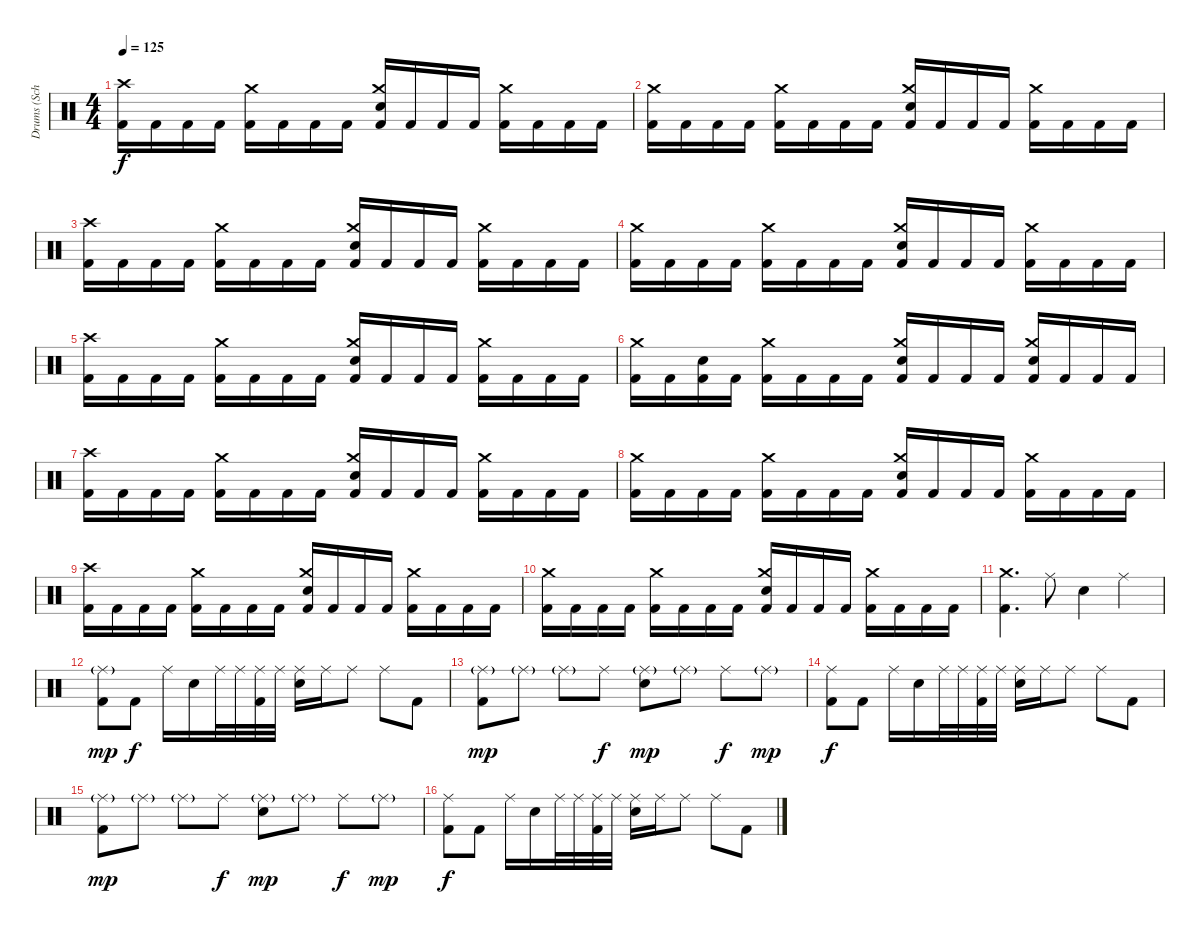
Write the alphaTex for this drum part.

\track ("Drums (Schill)" "Drums (Sch") {instrument percussion}
\staff {score}
\articulation defaults
\ts (4 4)
\tempo 125
\clef neutral
\ks c
("Crash high (hit)" "Kick (hit) 2").16{dy f} "Kick (hit) 2".16 "Kick (hit) 2".16 "Kick (hit) 2".16 ("Crash medium (hit)" "Kick (hit) 2").16 "Kick (hit) 2".16 "Kick (hit) 2".16 "Kick (hit) 2".16 ("Crash medium (hit)" "Electric Snare (hit)" "Kick (hit) 2").16 "Kick (hit) 2".16 "Kick (hit) 2".16 "Kick (hit) 2".16 ("Crash medium (hit)" "Kick (hit) 2").16 "Kick (hit) 2".16 "Kick (hit) 2".16 "Kick (hit) 2".16 |
("Crash medium (hit)" "Kick (hit) 2").16 "Kick (hit) 2".16 "Kick (hit) 2".16 "Kick (hit) 2".16 ("Crash medium (hit)" "Kick (hit) 2").16 "Kick (hit) 2".16 "Kick (hit) 2".16 "Kick (hit) 2".16 ("Crash medium (hit)" "Electric Snare (hit)" "Kick (hit) 2").16 "Kick (hit) 2".16 "Kick (hit) 2".16 "Kick (hit) 2".16 ("Crash medium (hit)" "Kick (hit) 2").16 "Kick (hit) 2".16 "Kick (hit) 2".16 "Kick (hit) 2".16 |
("Crash high (hit)" "Kick (hit) 2").16 "Kick (hit) 2".16 "Kick (hit) 2".16 "Kick (hit) 2".16 ("Crash medium (hit)" "Kick (hit) 2").16 "Kick (hit) 2".16 "Kick (hit) 2".16 "Kick (hit) 2".16 ("Crash medium (hit)" "Electric Snare (hit)" "Kick (hit) 2").16 "Kick (hit) 2".16 "Kick (hit) 2".16 "Kick (hit) 2".16 ("Crash medium (hit)" "Kick (hit) 2").16 "Kick (hit) 2".16 "Kick (hit) 2".16 "Kick (hit) 2".16 |
("Crash medium (hit)" "Kick (hit) 2").16 "Kick (hit) 2".16 "Kick (hit) 2".16 "Kick (hit) 2".16 ("Crash medium (hit)" "Kick (hit) 2").16 "Kick (hit) 2".16 "Kick (hit) 2".16 "Kick (hit) 2".16 ("Crash medium (hit)" "Electric Snare (hit)" "Kick (hit) 2").16 "Kick (hit) 2".16 "Kick (hit) 2".16 "Kick (hit) 2".16 ("Crash medium (hit)" "Kick (hit) 2").16 "Kick (hit) 2".16 "Kick (hit) 2".16 "Kick (hit) 2".16 |
("Crash high (hit)" "Kick (hit) 2").16 "Kick (hit) 2".16 "Kick (hit) 2".16 "Kick (hit) 2".16 ("Crash medium (hit)" "Kick (hit) 2").16 "Kick (hit) 2".16 "Kick (hit) 2".16 "Kick (hit) 2".16 ("Crash medium (hit)" "Electric Snare (hit)" "Kick (hit) 2").16 "Kick (hit) 2".16 "Kick (hit) 2".16 "Kick (hit) 2".16 ("Crash medium (hit)" "Kick (hit) 2").16 "Kick (hit) 2".16 "Kick (hit) 2".16 "Kick (hit) 2".16 |
("Crash medium (hit)" "Kick (hit) 2").16 "Kick (hit) 2".16 ("Electric Snare (hit)" "Kick (hit) 2").16 "Kick (hit) 2".16 ("Crash medium (hit)" "Kick (hit) 2").16 "Kick (hit) 2".16 "Kick (hit) 2".16 "Kick (hit) 2".16 ("Crash medium (hit)" "Electric Snare (hit)" "Kick (hit) 2").16 "Kick (hit) 2".16 "Kick (hit) 2".16 "Kick (hit) 2".16 ("Crash medium (hit)" "Electric Snare (hit)" "Kick (hit) 2").16 "Kick (hit) 2".16 "Kick (hit) 2".16 "Kick (hit) 2".16 |
("Crash high (hit)" "Kick (hit) 2").16 "Kick (hit) 2".16 "Kick (hit) 2".16 "Kick (hit) 2".16 ("Crash medium (hit)" "Kick (hit) 2").16 "Kick (hit) 2".16 "Kick (hit) 2".16 "Kick (hit) 2".16 ("Crash medium (hit)" "Electric Snare (hit)" "Kick (hit) 2").16 "Kick (hit) 2".16 "Kick (hit) 2".16 "Kick (hit) 2".16 ("Crash medium (hit)" "Kick (hit) 2").16 "Kick (hit) 2".16 "Kick (hit) 2".16 "Kick (hit) 2".16 |
("Crash medium (hit)" "Kick (hit) 2").16 "Kick (hit) 2".16 "Kick (hit) 2".16 "Kick (hit) 2".16 ("Crash medium (hit)" "Kick (hit) 2").16 "Kick (hit) 2".16 "Kick (hit) 2".16 "Kick (hit) 2".16 ("Crash medium (hit)" "Electric Snare (hit)" "Kick (hit) 2").16 "Kick (hit) 2".16 "Kick (hit) 2".16 "Kick (hit) 2".16 ("Crash medium (hit)" "Kick (hit) 2").16 "Kick (hit) 2".16 "Kick (hit) 2".16 "Kick (hit) 2".16 |
("Crash high (hit)" "Kick (hit) 2").16 "Kick (hit) 2".16 "Kick (hit) 2".16 "Kick (hit) 2".16 ("Crash medium (hit)" "Kick (hit) 2").16 "Kick (hit) 2".16 "Kick (hit) 2".16 "Kick (hit) 2".16 ("Crash medium (hit)" "Electric Snare (hit)" "Kick (hit) 2").16 "Kick (hit) 2".16 "Kick (hit) 2".16 "Kick (hit) 2".16 ("Crash medium (hit)" "Kick (hit) 2").16 "Kick (hit) 2".16 "Kick (hit) 2".16 "Kick (hit) 2".16 |
("Crash medium (hit)" "Kick (hit) 2").16 "Kick (hit) 2".16 "Kick (hit) 2".16 "Kick (hit) 2".16 ("Crash medium (hit)" "Kick (hit) 2").16 "Kick (hit) 2".16 "Kick (hit) 2".16 "Kick (hit) 2".16 ("Crash medium (hit)" "Electric Snare (hit)" "Kick (hit) 2").16 "Kick (hit) 2".16 "Kick (hit) 2".16 "Kick (hit) 2".16 ("Crash medium (hit)" "Kick (hit) 2").16 "Kick (hit) 2".16 "Kick (hit) 2".16 "Kick (hit) 2".16 |
("Crash medium (hit)" "Kick (hit) 2").4{d} "Ride (middle)".8 "Electric Snare (hit)".4 "Ride (middle)".4 |
("Ride (middle)"{g} "Kick (hit) 2").8{dy mp} "Kick (hit) 2".8{dy f} "Ride (middle)".16 "Electric Snare (hit)".16 "Ride (middle)".32 "Ride (middle)".32 ("Ride (middle)" "Kick (hit) 2").32 "Ride (middle)".32 ("Ride (middle)" "Electric Snare (hit)").16 "Ride (middle)".16 "Ride (middle)".8 "Ride (middle)".8 "Kick (hit) 2".8 |
("Ride (middle)"{g} "Kick (hit) 2").8{dy mp} "Ride (middle)"{g}.8 "Ride (middle)"{g}.8 "Ride (middle)".8{dy f} ("Ride (middle)"{g} "Electric Snare (hit)").8{dy mp} "Ride (middle)"{g}.8 "Ride (middle)".8{dy f} "Ride (middle)"{g}.8{dy mp} |
("Ride (middle)" "Kick (hit) 2").8{dy f} "Kick (hit) 2".8 "Ride (middle)".16 "Electric Snare (hit)".16 "Ride (middle)".32 "Ride (middle)".32 ("Ride (middle)" "Kick (hit) 2").32 "Ride (middle)".32 ("Ride (middle)" "Electric Snare (hit)").16 "Ride (middle)".16 "Ride (middle)".8 "Ride (middle)".8 "Kick (hit) 2".8 |
("Ride (middle)"{g} "Kick (hit) 2").8{dy mp} "Ride (middle)"{g}.8 "Ride (middle)"{g}.8 "Ride (middle)".8{dy f} ("Ride (middle)"{g} "Electric Snare (hit)").8{dy mp} "Ride (middle)"{g}.8 "Ride (middle)".8{dy f} "Ride (middle)"{g}.8{dy mp} |
("Ride (middle)" "Kick (hit) 2").8{dy f} "Kick (hit) 2".8 "Ride (middle)".16 "Electric Snare (hit)".16 "Ride (middle)".32 "Ride (middle)".32 ("Ride (middle)" "Kick (hit) 2").32 "Ride (middle)".32 ("Ride (middle)" "Electric Snare (hit)").16 "Ride (middle)".16 "Ride (middle)".8 "Ride (middle)".8 "Kick (hit) 2".8
